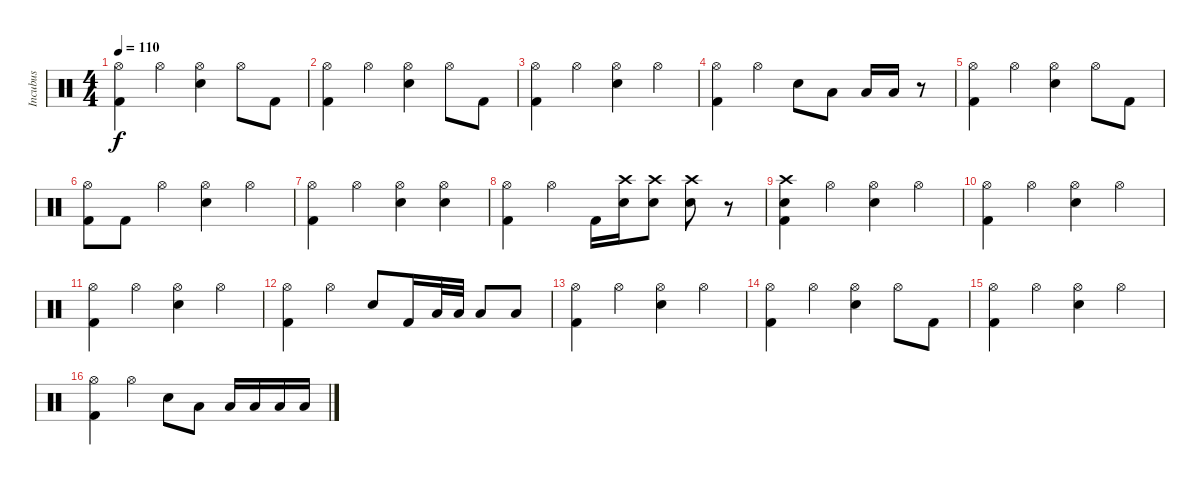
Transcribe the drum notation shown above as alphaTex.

\track ("Incubus" "Incubus") {instrument percussion}
\staff {score}
\articulation defaults
\ts (4 4)
\tempo 110
\clef neutral
\ks c
("Hi-Hat (open)" "Kick (hit) 2").4{dy f} "Hi-Hat (open)".4 ("Hi-Hat (open)" "Electric Snare (hit)").4 "Hi-Hat (open)".8 "Kick (hit) 2".8 |
("Hi-Hat (open)" "Kick (hit) 2").4 "Hi-Hat (open)".4 ("Hi-Hat (open)" "Electric Snare (hit)").4 "Hi-Hat (open)".8 "Kick (hit) 2".8 |
("Hi-Hat (open)" "Kick (hit) 2").4 "Hi-Hat (open)".4 ("Hi-Hat (open)" "Electric Snare (hit)").4 "Hi-Hat (open)".4 |
("Hi-Hat (open)" "Kick (hit) 2").4 "Hi-Hat (open)".4 "Electric Snare (hit)".8 "Low Tom (hit)".8 "Low Tom (hit)".16 "Low Tom (hit)".16 r.8 |
("Hi-Hat (open)" "Kick (hit) 2").4 "Hi-Hat (open)".4 ("Hi-Hat (open)" "Electric Snare (hit)").4 "Hi-Hat (open)".8 "Kick (hit) 2".8 |
("Hi-Hat (open)" "Kick (hit) 2").8 "Kick (hit) 2".8 "Hi-Hat (open)".4 ("Hi-Hat (open)" "Electric Snare (hit)").4 "Hi-Hat (open)".4 |
("Hi-Hat (open)" "Kick (hit) 2").4 "Hi-Hat (open)".4 ("Hi-Hat (open)" "Electric Snare (hit)").4 ("Hi-Hat (open)" "Electric Snare (hit)").4 |
("Hi-Hat (open)" "Kick (hit) 2").4 "Hi-Hat (open)".4 "Kick (hit) 2".16 ("Crash high (hit)" "Electric Snare (hit)").16 ("Crash high (hit)" "Electric Snare (hit)").8 ("Crash high (hit)" "Electric Snare (hit)").8 r.8 |
("Crash high (hit)" "Electric Snare (hit)" "Kick (hit) 2").4 "Hi-Hat (open)".4 ("Hi-Hat (open)" "Electric Snare (hit)").4 "Hi-Hat (open)".4 |
("Hi-Hat (open)" "Kick (hit) 2").4 "Hi-Hat (open)".4 ("Hi-Hat (open)" "Electric Snare (hit)").4 "Hi-Hat (open)".4 |
("Hi-Hat (open)" "Kick (hit) 2").4 "Hi-Hat (open)".4 ("Hi-Hat (open)" "Electric Snare (hit)").4 "Hi-Hat (open)".4 |
("Hi-Hat (open)" "Kick (hit) 2").4 "Hi-Hat (open)".4 "Electric Snare (hit)".8 "Kick (hit) 2".16 "Low Tom (hit)".32 "Low Tom (hit)".32 "Low Tom (hit)".8 "Low Tom (hit)".8 |
("Hi-Hat (open)" "Kick (hit) 2").4 "Hi-Hat (open)".4 ("Hi-Hat (open)" "Electric Snare (hit)").4 "Hi-Hat (open)".4 |
("Hi-Hat (open)" "Kick (hit) 2").4 "Hi-Hat (open)".4 ("Hi-Hat (open)" "Electric Snare (hit)").4 "Hi-Hat (open)".8 "Kick (hit) 2".8 |
("Hi-Hat (open)" "Kick (hit) 2").4 "Hi-Hat (open)".4 ("Hi-Hat (open)" "Electric Snare (hit)").4 "Hi-Hat (open)".4 |
("Hi-Hat (open)" "Kick (hit) 2").4 "Hi-Hat (open)".4 "Electric Snare (hit)".8 "Low Tom (hit)".8 "Low Tom (hit)".16 "Low Tom (hit)".16 "Low Tom (hit)".16 "Low Tom (hit)".16
